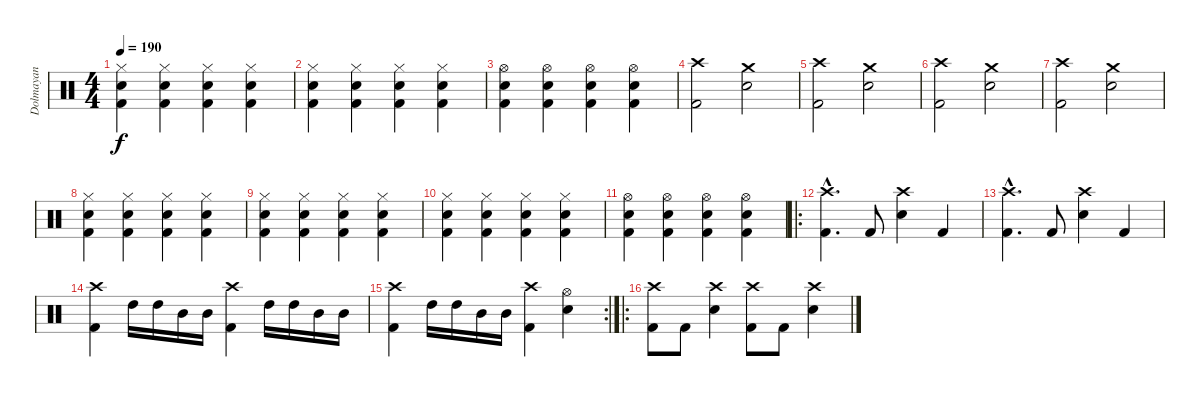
\track ("Dolmayan" "Dolmayan") {instrument percussion}
\staff {score}
\articulation defaults
\ts (4 4)
\tempo 190
\clef neutral
\ks c
("Hi-Hat (closed)" "Electric Snare (hit)" "Kick (hit) 2").4{dy f} ("Hi-Hat (closed)" "Electric Snare (hit)" "Kick (hit) 2").4 ("Hi-Hat (closed)" "Electric Snare (hit)" "Kick (hit) 2").4 ("Hi-Hat (closed)" "Electric Snare (hit)" "Kick (hit) 2").4 |
("Hi-Hat (closed)" "Electric Snare (hit)" "Kick (hit) 2").4 ("Hi-Hat (closed)" "Electric Snare (hit)" "Kick (hit) 2").4 ("Hi-Hat (closed)" "Electric Snare (hit)" "Kick (hit) 2").4 ("Hi-Hat (closed)" "Electric Snare (hit)" "Kick (hit) 2").4 |
("Hi-Hat (open)" "Electric Snare (hit)" "Kick (hit) 2").4 ("Hi-Hat (open)" "Electric Snare (hit)" "Kick (hit) 2").4 ("Hi-Hat (open)" "Electric Snare (hit)" "Kick (hit) 2").4 ("Hi-Hat (open)" "Electric Snare (hit)" "Kick (hit) 2").4 |
("Crash high (hit)" "Kick (hit) 2").2 ("Crash medium (hit)" "Electric Snare (hit)").2 |
("Crash high (hit)" "Kick (hit) 2").2 ("Crash medium (hit)" "Electric Snare (hit)").2 |
("Crash high (hit)" "Kick (hit) 2").2 ("Crash medium (hit)" "Electric Snare (hit)").2 |
("Crash high (hit)" "Kick (hit) 2").2 ("Crash medium (hit)" "Electric Snare (hit)").2 |
("Hi-Hat (closed)" "Electric Snare (hit)" "Kick (hit) 2").4 ("Hi-Hat (closed)" "Electric Snare (hit)" "Kick (hit) 2").4 ("Hi-Hat (closed)" "Electric Snare (hit)" "Kick (hit) 2").4 ("Hi-Hat (closed)" "Electric Snare (hit)" "Kick (hit) 2").4 |
("Hi-Hat (closed)" "Electric Snare (hit)" "Kick (hit) 2").4 ("Hi-Hat (closed)" "Electric Snare (hit)" "Kick (hit) 2").4 ("Hi-Hat (closed)" "Electric Snare (hit)" "Kick (hit) 2").4 ("Hi-Hat (closed)" "Electric Snare (hit)" "Kick (hit) 2").4 |
("Hi-Hat (closed)" "Electric Snare (hit)" "Kick (hit) 2").4 ("Hi-Hat (closed)" "Electric Snare (hit)" "Kick (hit) 2").4 ("Hi-Hat (closed)" "Electric Snare (hit)" "Kick (hit) 2").4 ("Hi-Hat (closed)" "Electric Snare (hit)" "Kick (hit) 2").4 |
("Hi-Hat (open)" "Electric Snare (hit)" "Kick (hit) 2").4 ("Hi-Hat (open)" "Electric Snare (hit)" "Kick (hit) 2").4 ("Hi-Hat (open)" "Electric Snare (hit)" "Kick (hit) 2").4 ("Hi-Hat (open)" "Electric Snare (hit)" "Kick (hit) 2").4 |
\ro
("Crash high (hit)"{hac} "Kick (hit) 2"{hac}).4{d} "Kick (hit) 2".8 ("Crash high (hit)" "Electric Snare (hit)").4 "Kick (hit) 2".4 |
("Crash high (hit)"{hac} "Kick (hit) 2"{hac}).4{d} "Kick (hit) 2".8 ("Crash high (hit)" "Electric Snare (hit)").4 "Kick (hit) 2".4 |
("Crash high (hit)" "Kick (hit) 2").4 "High Tom (hit)".16 "High Tom (hit)".16 "Mid Tom (hit)".16 "Mid Tom (hit)".16 ("Crash high (hit)" "Kick (hit) 2").4 "High Tom (hit)".16 "High Tom (hit)".16 "Mid Tom (hit)".16 "Mid Tom (hit)".16 |
\rc 2
("Crash high (hit)" "Kick (hit) 2").4 "High Tom (hit)".16 "High Tom (hit)".16 "Mid Tom (hit)".16 "Mid Tom (hit)".16 ("Crash high (hit)" "Kick (hit) 2").4 ("Hi-Hat (open)" "Electric Snare (hit)").4 |
\ro
("Crash high (hit)" "Kick (hit) 2").8 "Kick (hit) 2".8 ("Crash high (hit)" "Electric Snare (hit)").4 ("Crash high (hit)" "Kick (hit) 2").8 "Kick (hit) 2".8 ("Crash high (hit)" "Electric Snare (hit)").4
